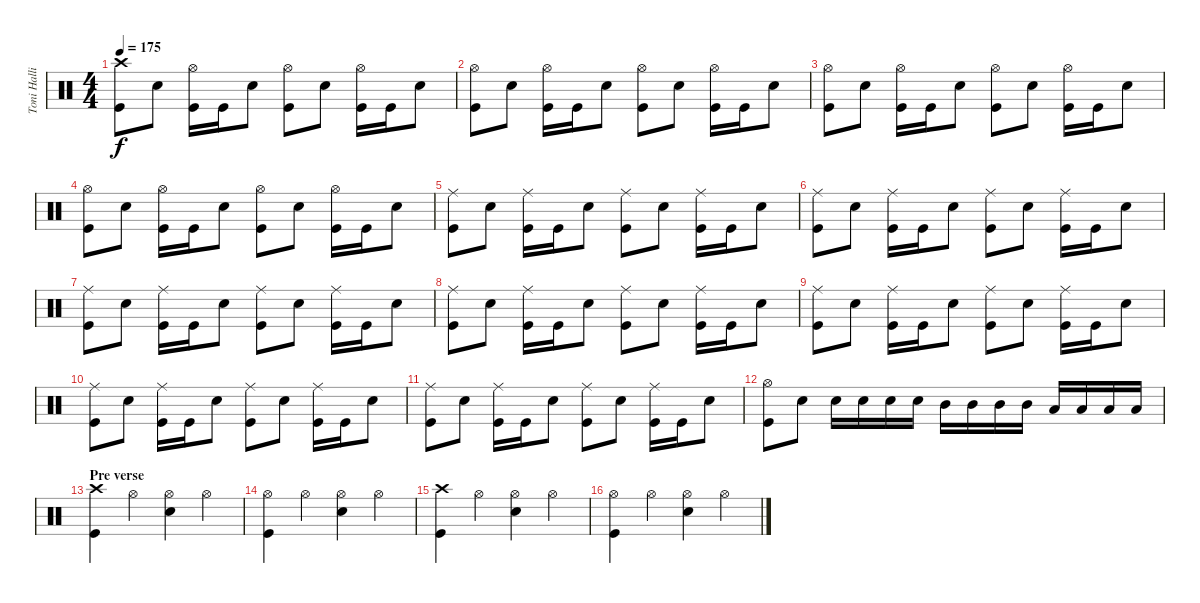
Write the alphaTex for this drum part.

\track ("Toni Hallio" "Toni Halli") {instrument percussion}
\staff {score}
\articulation defaults
\ts (4 4)
\tempo 175
\clef neutral
\ks c
("Crash high (hit)" "Kick (hit)").8{dy f} "Snare (hit) 2".8 ("Hi-Hat (open)" "Kick (hit)").16 "Kick (hit)".16 "Snare (hit) 2".8 ("Hi-Hat (open)" "Kick (hit)").8 "Snare (hit) 2".8 ("Hi-Hat (open)" "Kick (hit)").16 "Kick (hit)".16 "Snare (hit) 2".8 |
("Hi-Hat (open)" "Kick (hit)").8 "Snare (hit) 2".8 ("Hi-Hat (open)" "Kick (hit)").16 "Kick (hit)".16 "Snare (hit) 2".8 ("Hi-Hat (open)" "Kick (hit)").8 "Snare (hit) 2".8 ("Hi-Hat (open)" "Kick (hit)").16 "Kick (hit)".16 "Snare (hit) 2".8 |
("Hi-Hat (open)" "Kick (hit)").8 "Snare (hit) 2".8 ("Hi-Hat (open)" "Kick (hit)").16 "Kick (hit)".16 "Snare (hit) 2".8 ("Hi-Hat (open)" "Kick (hit)").8 "Snare (hit) 2".8 ("Hi-Hat (open)" "Kick (hit)").16 "Kick (hit)".16 "Snare (hit) 2".8 |
("Hi-Hat (open)" "Kick (hit)").8 "Snare (hit) 2".8 ("Hi-Hat (open)" "Kick (hit)").16 "Kick (hit)".16 "Snare (hit) 2".8 ("Hi-Hat (open)" "Kick (hit)").8 "Snare (hit) 2".8 ("Hi-Hat (open)" "Kick (hit)").16 "Kick (hit)".16 "Snare (hit) 2".8 |
("Ride (middle)" "Kick (hit)").8 "Snare (hit) 2".8 ("Ride (middle)" "Kick (hit)").16 "Kick (hit)".16 "Snare (hit) 2".8 ("Ride (middle)" "Kick (hit)").8 "Snare (hit) 2".8 ("Ride (middle)" "Kick (hit)").16 "Kick (hit)".16 "Snare (hit) 2".8 |
("Ride (middle)" "Kick (hit)").8 "Snare (hit) 2".8 ("Ride (middle)" "Kick (hit)").16 "Kick (hit)".16 "Snare (hit) 2".8 ("Ride (middle)" "Kick (hit)").8 "Snare (hit) 2".8 ("Ride (middle)" "Kick (hit)").16 "Kick (hit)".16 "Snare (hit) 2".8 |
("Ride (middle)" "Kick (hit)").8 "Snare (hit) 2".8 ("Ride (middle)" "Kick (hit)").16 "Kick (hit)".16 "Snare (hit) 2".8 ("Ride (middle)" "Kick (hit)").8 "Snare (hit) 2".8 ("Ride (middle)" "Kick (hit)").16 "Kick (hit)".16 "Snare (hit) 2".8 |
("Ride (middle)" "Kick (hit)").8 "Snare (hit) 2".8 ("Ride (middle)" "Kick (hit)").16 "Kick (hit)".16 "Snare (hit) 2".8 ("Ride (middle)" "Kick (hit)").8 "Snare (hit) 2".8 ("Ride (middle)" "Kick (hit)").16 "Kick (hit)".16 "Snare (hit) 2".8 |
("Ride (middle)" "Kick (hit)").8 "Snare (hit) 2".8 ("Ride (middle)" "Kick (hit)").16 "Kick (hit)".16 "Snare (hit) 2".8 ("Ride (middle)" "Kick (hit)").8 "Snare (hit) 2".8 ("Ride (middle)" "Kick (hit)").16 "Kick (hit)".16 "Snare (hit) 2".8 |
("Ride (middle)" "Kick (hit)").8 "Snare (hit) 2".8 ("Ride (middle)" "Kick (hit)").16 "Kick (hit)".16 "Snare (hit) 2".8 ("Ride (middle)" "Kick (hit)").8 "Snare (hit) 2".8 ("Ride (middle)" "Kick (hit)").16 "Kick (hit)".16 "Snare (hit) 2".8 |
("Ride (middle)" "Kick (hit)").8 "Snare (hit) 2".8 ("Ride (middle)" "Kick (hit)").16 "Kick (hit)".16 "Snare (hit) 2".8 ("Ride (middle)" "Kick (hit)").8 "Snare (hit) 2".8 ("Ride (middle)" "Kick (hit)").16 "Kick (hit)".16 "Snare (hit) 2".8 |
("Hi-Hat (open)" "Kick (hit)").8 "Snare (hit) 2".8 "Snare (hit) 2".16 "Snare (hit) 2".16 "Snare (hit) 2".16 "Snare (hit) 2".16 "Mid Tom (hit)".16 "Mid Tom (hit)".16 "Mid Tom (hit)".16 "Mid Tom (hit)".16 "Low Tom (hit)".16 "Low Tom (hit)".16 "Low Tom (hit)".16 "Low Tom (hit)".16 |
\section ("" "Pre verse")
("Crash high (hit)" "Kick (hit)").4 "Hi-Hat (open)".4 ("Hi-Hat (open)" "Snare (hit) 2").4 "Hi-Hat (open)".4 |
("Hi-Hat (open)" "Kick (hit)").4 "Hi-Hat (open)".4 ("Hi-Hat (open)" "Snare (hit) 2").4 "Hi-Hat (open)".4 |
("Crash high (hit)" "Kick (hit)").4 "Hi-Hat (open)".4 ("Hi-Hat (open)" "Snare (hit) 2").4 "Hi-Hat (open)".4 |
("Hi-Hat (open)" "Kick (hit)").4 "Hi-Hat (open)".4 ("Hi-Hat (open)" "Snare (hit) 2").4 "Hi-Hat (open)".4
